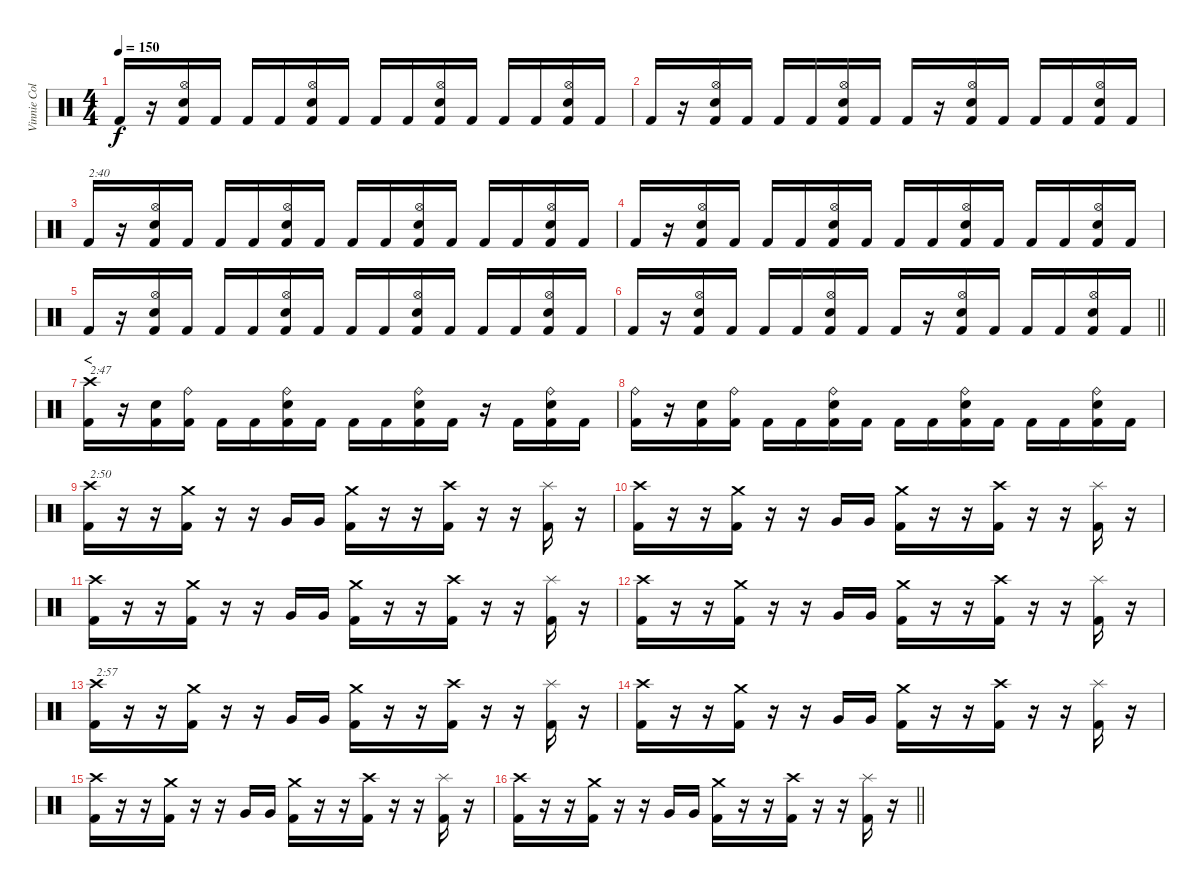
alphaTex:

\track ("Vinnie Colaiuta" "Vinnie Col") {instrument percussion}
\staff {score}
\articulation defaults
\ts (4 4)
\tempo 150
\clef neutral
\ks c "Kick (hit) 2".16{dy f}
r.16 ("Hi-Hat (open)" "Electric Snare (hit)" "Kick (hit) 2").16 "Kick (hit) 2".16 "Kick (hit) 2".16 "Kick (hit) 2".16 ("Hi-Hat (open)" "Electric Snare (hit)" "Kick (hit) 2").16 "Kick (hit) 2".16 "Kick (hit) 2".16 "Kick (hit) 2".16 ("Hi-Hat (open)" "Electric Snare (hit)" "Kick (hit) 2").16 "Kick (hit) 2".16 "Kick (hit) 2".16 "Kick (hit) 2".16 ("Hi-Hat (open)" "Electric Snare (hit)" "Kick (hit) 2").16 "Kick (hit) 2".16 |
"Kick (hit) 2".16 r.16 ("Hi-Hat (open)" "Electric Snare (hit)" "Kick (hit) 2").16 "Kick (hit) 2".16 "Kick (hit) 2".16 "Kick (hit) 2".16 ("Hi-Hat (open)" "Electric Snare (hit)" "Kick (hit) 2").16 "Kick (hit) 2".16 "Kick (hit) 2".16 r.16 ("Hi-Hat (open)" "Electric Snare (hit)" "Kick (hit) 2").16 "Kick (hit) 2".16 "Kick (hit) 2".16 "Kick (hit) 2".16 ("Hi-Hat (open)" "Electric Snare (hit)" "Kick (hit) 2").16 "Kick (hit) 2".16 |
"Kick (hit) 2".16{txt "2:40"} r.16 ("Hi-Hat (open)" "Electric Snare (hit)" "Kick (hit) 2").16 "Kick (hit) 2".16 "Kick (hit) 2".16 "Kick (hit) 2".16 ("Hi-Hat (open)" "Electric Snare (hit)" "Kick (hit) 2").16 "Kick (hit) 2".16 "Kick (hit) 2".16 "Kick (hit) 2".16 ("Hi-Hat (open)" "Electric Snare (hit)" "Kick (hit) 2").16 "Kick (hit) 2".16 "Kick (hit) 2".16 "Kick (hit) 2".16 ("Hi-Hat (open)" "Electric Snare (hit)" "Kick (hit) 2").16 "Kick (hit) 2".16 |
"Kick (hit) 2".16 r.16 ("Hi-Hat (open)" "Electric Snare (hit)" "Kick (hit) 2").16 "Kick (hit) 2".16 "Kick (hit) 2".16 "Kick (hit) 2".16 ("Hi-Hat (open)" "Electric Snare (hit)" "Kick (hit) 2").16 "Kick (hit) 2".16 "Kick (hit) 2".16 "Kick (hit) 2".16 ("Hi-Hat (open)" "Electric Snare (hit)" "Kick (hit) 2").16 "Kick (hit) 2".16 "Kick (hit) 2".16 "Kick (hit) 2".16 ("Hi-Hat (open)" "Electric Snare (hit)" "Kick (hit) 2").16 "Kick (hit) 2".16 |
"Kick (hit) 2".16 r.16 ("Hi-Hat (open)" "Electric Snare (hit)" "Kick (hit) 2").16 "Kick (hit) 2".16 "Kick (hit) 2".16 "Kick (hit) 2".16 ("Hi-Hat (open)" "Electric Snare (hit)" "Kick (hit) 2").16 "Kick (hit) 2".16 "Kick (hit) 2".16 "Kick (hit) 2".16 ("Hi-Hat (open)" "Electric Snare (hit)" "Kick (hit) 2").16 "Kick (hit) 2".16 "Kick (hit) 2".16 "Kick (hit) 2".16 ("Hi-Hat (open)" "Electric Snare (hit)" "Kick (hit) 2").16 "Kick (hit) 2".16 |
\barLineRight lightlight "Kick (hit) 2".16
r.16 ("Hi-Hat (open)" "Electric Snare (hit)" "Kick (hit) 2").16 "Kick (hit) 2".16 "Kick (hit) 2".16 "Kick (hit) 2".16 ("Hi-Hat (open)" "Electric Snare (hit)" "Kick (hit) 2").16 "Kick (hit) 2".16 "Kick (hit) 2".16 r.16 ("Hi-Hat (open)" "Electric Snare (hit)" "Kick (hit) 2").16 "Kick (hit) 2".16 "Kick (hit) 2".16 "Kick (hit) 2".16 ("Hi-Hat (open)" "Electric Snare (hit)" "Kick (hit) 2").16 "Kick (hit) 2".16 |
\section ("" "<")
("Crash high (hit)" "Kick (hit) 2").16{txt "2:47"} r.16 ("Electric Snare (hit)" "Kick (hit) 2").16 ("Ride (bell)" "Kick (hit) 2").16 "Kick (hit) 2".16 "Kick (hit) 2".16 ("Ride (bell)" "Electric Snare (hit)" "Kick (hit) 2").16 "Kick (hit) 2".16 "Kick (hit) 2".16 "Kick (hit) 2".16 ("Ride (bell)" "Electric Snare (hit)" "Kick (hit) 2").16 "Kick (hit) 2".16 r.16 "Kick (hit) 2".16 ("Ride (bell)" "Electric Snare (hit)" "Kick (hit) 2").16 "Kick (hit) 2".16 |
("Ride (bell)" "Kick (hit) 2").16 r.16 ("Electric Snare (hit)" "Kick (hit) 2").16 ("Ride (bell)" "Kick (hit) 2").16 "Kick (hit) 2".16 "Kick (hit) 2".16 ("Ride (bell)" "Electric Snare (hit)" "Kick (hit) 2").16 "Kick (hit) 2".16 "Kick (hit) 2".16 "Kick (hit) 2".16 ("Ride (bell)" "Electric Snare (hit)" "Kick (hit) 2").16 "Kick (hit) 2".16 "Kick (hit) 2".16 "Kick (hit) 2".16 ("Ride (bell)" "Electric Snare (hit)" "Kick (hit) 2").16 "Kick (hit) 2".16 |
("Crash high (hit)" "Kick (hit) 2").16{txt "2:50"} r.16 r.16 ("Crash medium (hit)" "Kick (hit) 2").16 r.16 r.16 "Very Low Tom (hit)".16 "Very Low Tom (hit)".16 ("Crash medium (hit)" "Kick (hit) 2").16 r.16 r.16 ("Crash high (hit)" "Kick (hit) 2").16 r.16 r.16 ("Splash (hit)" "Kick (hit) 2").16 r.16 |
("Crash high (hit)" "Kick (hit) 2").16 r.16 r.16 ("Crash medium (hit)" "Kick (hit) 2").16 r.16 r.16 "Very Low Tom (hit)".16 "Very Low Tom (hit)".16 ("Crash medium (hit)" "Kick (hit) 2").16 r.16 r.16 ("Crash high (hit)" "Kick (hit) 2").16 r.16 r.16 ("Splash (hit)" "Kick (hit) 2").16 r.16 |
("Crash high (hit)" "Kick (hit) 2").16 r.16 r.16 ("Crash medium (hit)" "Kick (hit) 2").16 r.16 r.16 "Very Low Tom (hit)".16 "Very Low Tom (hit)".16 ("Crash medium (hit)" "Kick (hit) 2").16 r.16 r.16 ("Crash high (hit)" "Kick (hit) 2").16 r.16 r.16 ("Splash (hit)" "Kick (hit) 2").16 r.16 |
("Crash high (hit)" "Kick (hit) 2").16 r.16 r.16 ("Crash medium (hit)" "Kick (hit) 2").16 r.16 r.16 "Very Low Tom (hit)".16 "Very Low Tom (hit)".16 ("Crash medium (hit)" "Kick (hit) 2").16 r.16 r.16 ("Crash high (hit)" "Kick (hit) 2").16 r.16 r.16 ("Splash (hit)" "Kick (hit) 2").16 r.16 |
("Crash high (hit)" "Kick (hit) 2").16{txt "2:57"} r.16 r.16 ("Crash medium (hit)" "Kick (hit) 2").16 r.16 r.16 "Very Low Tom (hit)".16 "Very Low Tom (hit)".16 ("Crash medium (hit)" "Kick (hit) 2").16 r.16 r.16 ("Crash high (hit)" "Kick (hit) 2").16 r.16 r.16 ("Splash (hit)" "Kick (hit) 2").16 r.16 |
("Crash high (hit)" "Kick (hit) 2").16 r.16 r.16 ("Crash medium (hit)" "Kick (hit) 2").16 r.16 r.16 "Very Low Tom (hit)".16 "Very Low Tom (hit)".16 ("Crash medium (hit)" "Kick (hit) 2").16 r.16 r.16 ("Crash high (hit)" "Kick (hit) 2").16 r.16 r.16 ("Splash (hit)" "Kick (hit) 2").16 r.16 |
("Crash high (hit)" "Kick (hit) 2").16 r.16 r.16 ("Crash medium (hit)" "Kick (hit) 2").16 r.16 r.16 "Very Low Tom (hit)".16 "Very Low Tom (hit)".16 ("Crash medium (hit)" "Kick (hit) 2").16 r.16 r.16 ("Crash high (hit)" "Kick (hit) 2").16 r.16 r.16 ("Splash (hit)" "Kick (hit) 2").16 r.16 |
\barLineRight lightlight
("Crash high (hit)" "Kick (hit) 2").16 r.16 r.16 ("Crash medium (hit)" "Kick (hit) 2").16 r.16 r.16 "Very Low Tom (hit)".16 "Very Low Tom (hit)".16 ("Crash medium (hit)" "Kick (hit) 2").16 r.16 r.16 ("Crash high (hit)" "Kick (hit) 2").16 r.16 r.16 ("Splash (hit)" "Kick (hit) 2").16 r.16
